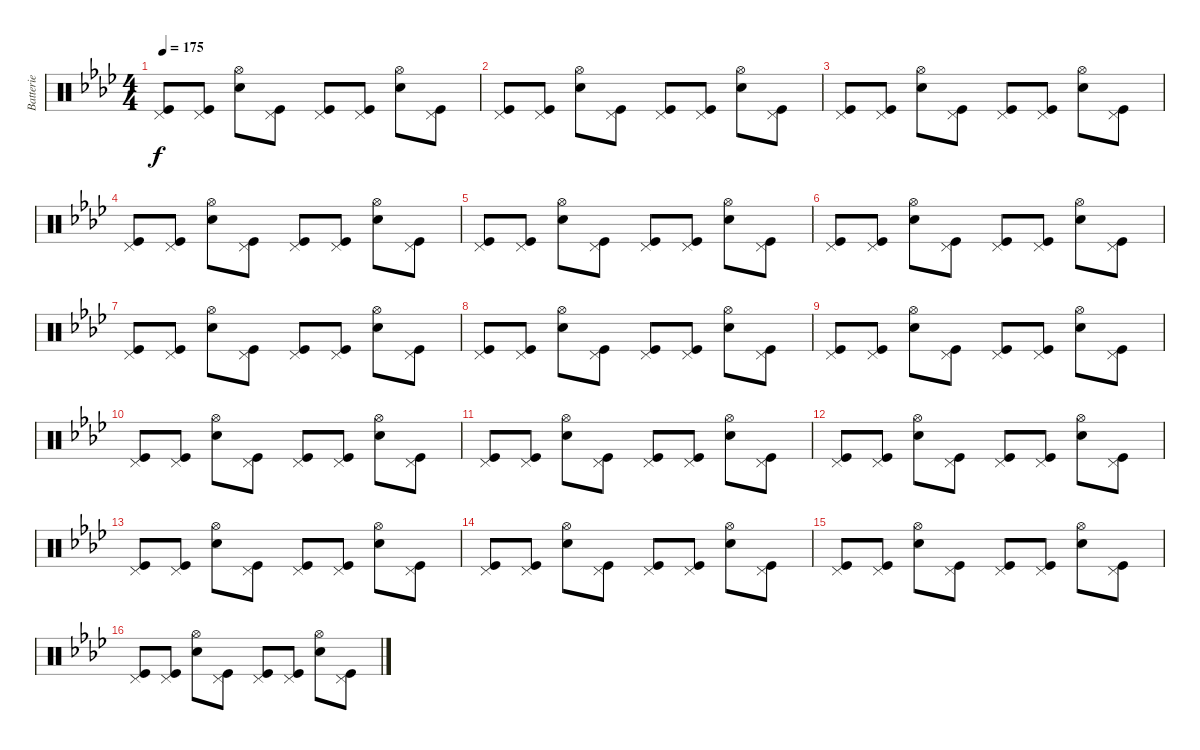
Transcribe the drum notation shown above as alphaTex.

\track ("Batterie" "Batterie") {instrument percussion}
\staff {score}
\articulation defaults
\ts (4 4)
\tempo 175
\clef neutral
\ks ab
("Kick (hit)" "Pedal Hi-Hat (hit)").8{dy f} ("Kick (hit)" "Pedal Hi-Hat (hit)").8 ("Snare (hit) 2" "Hi-Hat (open)").8 ("Kick (hit)" "Pedal Hi-Hat (hit)").8 ("Kick (hit)" "Pedal Hi-Hat (hit)").8 ("Kick (hit)" "Pedal Hi-Hat (hit)").8 ("Snare (hit) 2" "Hi-Hat (open)").8 ("Kick (hit)" "Pedal Hi-Hat (hit)").8 |
("Kick (hit)" "Pedal Hi-Hat (hit)").8 ("Kick (hit)" "Pedal Hi-Hat (hit)").8 ("Snare (hit) 2" "Hi-Hat (open)").8 ("Kick (hit)" "Pedal Hi-Hat (hit)").8 ("Kick (hit)" "Pedal Hi-Hat (hit)").8 ("Kick (hit)" "Pedal Hi-Hat (hit)").8 ("Snare (hit) 2" "Hi-Hat (open)").8 ("Kick (hit)" "Pedal Hi-Hat (hit)").8 |
("Kick (hit)" "Pedal Hi-Hat (hit)").8 ("Kick (hit)" "Pedal Hi-Hat (hit)").8 ("Snare (hit) 2" "Hi-Hat (open)").8 ("Kick (hit)" "Pedal Hi-Hat (hit)").8 ("Kick (hit)" "Pedal Hi-Hat (hit)").8 ("Kick (hit)" "Pedal Hi-Hat (hit)").8 ("Snare (hit) 2" "Hi-Hat (open)").8 ("Kick (hit)" "Pedal Hi-Hat (hit)").8 |
("Kick (hit)" "Pedal Hi-Hat (hit)").8 ("Kick (hit)" "Pedal Hi-Hat (hit)").8 ("Snare (hit) 2" "Hi-Hat (open)").8 ("Kick (hit)" "Pedal Hi-Hat (hit)").8 ("Kick (hit)" "Pedal Hi-Hat (hit)").8 ("Kick (hit)" "Pedal Hi-Hat (hit)").8 ("Snare (hit) 2" "Hi-Hat (open)").8 ("Kick (hit)" "Pedal Hi-Hat (hit)").8 |
("Kick (hit)" "Pedal Hi-Hat (hit)").8 ("Kick (hit)" "Pedal Hi-Hat (hit)").8 ("Snare (hit) 2" "Hi-Hat (open)").8 ("Kick (hit)" "Pedal Hi-Hat (hit)").8 ("Kick (hit)" "Pedal Hi-Hat (hit)").8 ("Kick (hit)" "Pedal Hi-Hat (hit)").8 ("Snare (hit) 2" "Hi-Hat (open)").8 ("Kick (hit)" "Pedal Hi-Hat (hit)").8 |
("Kick (hit)" "Pedal Hi-Hat (hit)").8 ("Kick (hit)" "Pedal Hi-Hat (hit)").8 ("Snare (hit) 2" "Hi-Hat (open)").8 ("Kick (hit)" "Pedal Hi-Hat (hit)").8 ("Kick (hit)" "Pedal Hi-Hat (hit)").8 ("Kick (hit)" "Pedal Hi-Hat (hit)").8 ("Snare (hit) 2" "Hi-Hat (open)").8 ("Kick (hit)" "Pedal Hi-Hat (hit)").8 |
("Kick (hit)" "Pedal Hi-Hat (hit)").8 ("Kick (hit)" "Pedal Hi-Hat (hit)").8 ("Snare (hit) 2" "Hi-Hat (open)").8 ("Kick (hit)" "Pedal Hi-Hat (hit)").8 ("Kick (hit)" "Pedal Hi-Hat (hit)").8 ("Kick (hit)" "Pedal Hi-Hat (hit)").8 ("Snare (hit) 2" "Hi-Hat (open)").8 ("Kick (hit)" "Pedal Hi-Hat (hit)").8 |
("Kick (hit)" "Pedal Hi-Hat (hit)").8 ("Kick (hit)" "Pedal Hi-Hat (hit)").8 ("Snare (hit) 2" "Hi-Hat (open)").8 ("Kick (hit)" "Pedal Hi-Hat (hit)").8 ("Kick (hit)" "Pedal Hi-Hat (hit)").8 ("Kick (hit)" "Pedal Hi-Hat (hit)").8 ("Snare (hit) 2" "Hi-Hat (open)").8 ("Kick (hit)" "Pedal Hi-Hat (hit)").8 |
("Kick (hit)" "Pedal Hi-Hat (hit)").8 ("Kick (hit)" "Pedal Hi-Hat (hit)").8 ("Snare (hit) 2" "Hi-Hat (open)").8 ("Kick (hit)" "Pedal Hi-Hat (hit)").8 ("Kick (hit)" "Pedal Hi-Hat (hit)").8 ("Kick (hit)" "Pedal Hi-Hat (hit)").8 ("Snare (hit) 2" "Hi-Hat (open)").8 ("Kick (hit)" "Pedal Hi-Hat (hit)").8 |
("Kick (hit)" "Pedal Hi-Hat (hit)").8 ("Kick (hit)" "Pedal Hi-Hat (hit)").8 ("Snare (hit) 2" "Hi-Hat (open)").8 ("Kick (hit)" "Pedal Hi-Hat (hit)").8 ("Kick (hit)" "Pedal Hi-Hat (hit)").8 ("Kick (hit)" "Pedal Hi-Hat (hit)").8 ("Snare (hit) 2" "Hi-Hat (open)").8 ("Kick (hit)" "Pedal Hi-Hat (hit)").8 |
("Kick (hit)" "Pedal Hi-Hat (hit)").8 ("Kick (hit)" "Pedal Hi-Hat (hit)").8 ("Snare (hit) 2" "Hi-Hat (open)").8 ("Kick (hit)" "Pedal Hi-Hat (hit)").8 ("Kick (hit)" "Pedal Hi-Hat (hit)").8 ("Kick (hit)" "Pedal Hi-Hat (hit)").8 ("Snare (hit) 2" "Hi-Hat (open)").8 ("Kick (hit)" "Pedal Hi-Hat (hit)").8 |
("Kick (hit)" "Pedal Hi-Hat (hit)").8 ("Kick (hit)" "Pedal Hi-Hat (hit)").8 ("Snare (hit) 2" "Hi-Hat (open)").8 ("Kick (hit)" "Pedal Hi-Hat (hit)").8 ("Kick (hit)" "Pedal Hi-Hat (hit)").8 ("Kick (hit)" "Pedal Hi-Hat (hit)").8 ("Snare (hit) 2" "Hi-Hat (open)").8 ("Kick (hit)" "Pedal Hi-Hat (hit)").8 |
("Kick (hit)" "Pedal Hi-Hat (hit)").8 ("Kick (hit)" "Pedal Hi-Hat (hit)").8 ("Snare (hit) 2" "Hi-Hat (open)").8 ("Kick (hit)" "Pedal Hi-Hat (hit)").8 ("Kick (hit)" "Pedal Hi-Hat (hit)").8 ("Kick (hit)" "Pedal Hi-Hat (hit)").8 ("Snare (hit) 2" "Hi-Hat (open)").8 ("Kick (hit)" "Pedal Hi-Hat (hit)").8 |
("Kick (hit)" "Pedal Hi-Hat (hit)").8 ("Kick (hit)" "Pedal Hi-Hat (hit)").8 ("Snare (hit) 2" "Hi-Hat (open)").8 ("Kick (hit)" "Pedal Hi-Hat (hit)").8 ("Kick (hit)" "Pedal Hi-Hat (hit)").8 ("Kick (hit)" "Pedal Hi-Hat (hit)").8 ("Snare (hit) 2" "Hi-Hat (open)").8 ("Kick (hit)" "Pedal Hi-Hat (hit)").8 |
("Kick (hit)" "Pedal Hi-Hat (hit)").8 ("Kick (hit)" "Pedal Hi-Hat (hit)").8 ("Snare (hit) 2" "Hi-Hat (open)").8 ("Kick (hit)" "Pedal Hi-Hat (hit)").8 ("Kick (hit)" "Pedal Hi-Hat (hit)").8 ("Kick (hit)" "Pedal Hi-Hat (hit)").8 ("Snare (hit) 2" "Hi-Hat (open)").8 ("Kick (hit)" "Pedal Hi-Hat (hit)").8 |
("Kick (hit)" "Pedal Hi-Hat (hit)").8 ("Kick (hit)" "Pedal Hi-Hat (hit)").8 ("Snare (hit) 2" "Hi-Hat (open)").8 ("Kick (hit)" "Pedal Hi-Hat (hit)").8 ("Kick (hit)" "Pedal Hi-Hat (hit)").8 ("Kick (hit)" "Pedal Hi-Hat (hit)").8 ("Snare (hit) 2" "Hi-Hat (open)").8 ("Kick (hit)" "Pedal Hi-Hat (hit)").8
